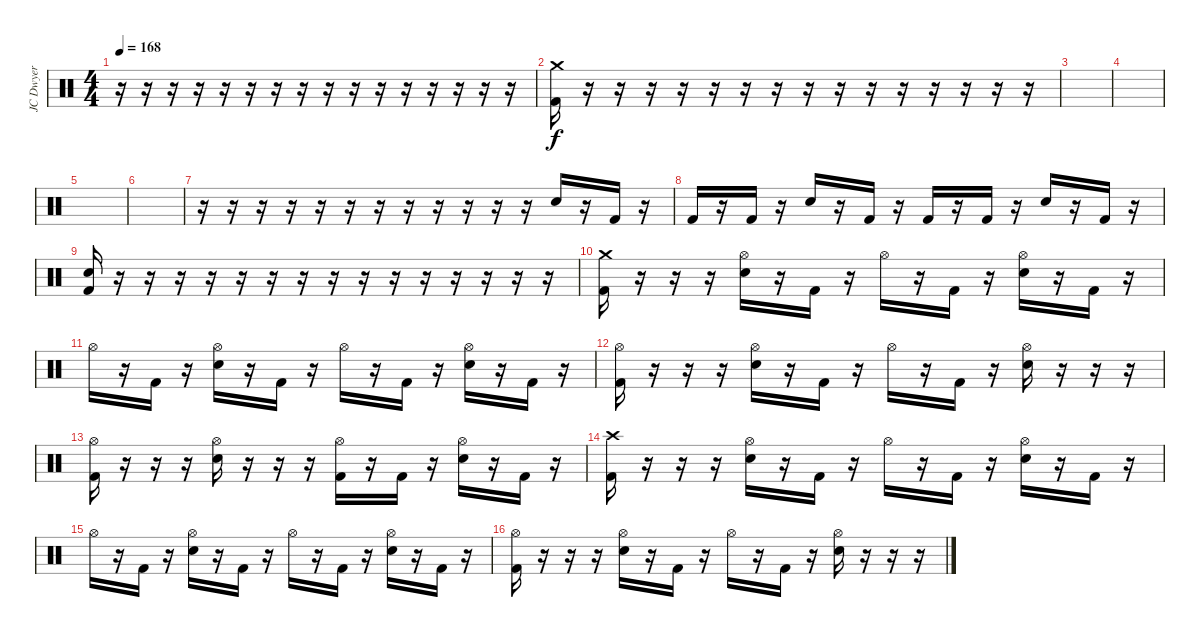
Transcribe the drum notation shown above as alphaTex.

\track ("JC Dwyer" "JC Dwyer") {instrument percussion}
\staff {score}
\articulation defaults
\ts (4 4)
\tempo 168
\clef neutral
\ks c
r.16{dy f} r.16 r.16 r.16 r.16 r.16 r.16 r.16 r.16 r.16 r.16 r.16 r.16 r.16 r.16 r.16 |
("Crash medium (hit)" "Kick (hit) 2").16 r.16 r.16 r.16 r.16 r.16 r.16 r.16 r.16 r.16 r.16 r.16 r.16 r.16 r.16 r.16 |
|
|
|
|
r.16 r.16 r.16 r.16 r.16 r.16 r.16 r.16 r.16 r.16 r.16 r.16 "Electric Snare (hit)".16 r.16 "Kick (hit) 2".16 r.16 |
"Kick (hit) 2".16 r.16 "Kick (hit) 2".16 r.16 "Electric Snare (hit)".16 r.16 "Kick (hit) 2".16 r.16 "Kick (hit) 2".16 r.16 "Kick (hit) 2".16 r.16 "Electric Snare (hit)".16 r.16 "Kick (hit) 2".16 r.16 |
("Electric Snare (hit)" "Kick (hit) 2").16 r.16 r.16 r.16 r.16 r.16 r.16 r.16 r.16 r.16 r.16 r.16 r.16 r.16 r.16 r.16 |
("Crash medium (hit)" "Kick (hit) 2").16 r.16 r.16 r.16 ("Hi-Hat (open)" "Electric Snare (hit)").16 r.16 "Kick (hit) 2".16 r.16 "Hi-Hat (open)".16 r.16 "Kick (hit) 2".16 r.16 ("Hi-Hat (open)" "Electric Snare (hit)").16 r.16 "Kick (hit) 2".16 r.16 |
"Hi-Hat (open)".16 r.16 "Kick (hit) 2".16 r.16 ("Hi-Hat (open)" "Electric Snare (hit)").16 r.16 "Kick (hit) 2".16 r.16 "Hi-Hat (open)".16 r.16 "Kick (hit) 2".16 r.16 ("Hi-Hat (open)" "Electric Snare (hit)").16 r.16 "Kick (hit) 2".16 r.16 |
("Hi-Hat (open)" "Kick (hit) 2").16 r.16 r.16 r.16 ("Hi-Hat (open)" "Electric Snare (hit)").16 r.16 "Kick (hit) 2".16 r.16 "Hi-Hat (open)".16 r.16 "Kick (hit) 2".16 r.16 ("Hi-Hat (open)" "Electric Snare (hit)").16 r.16 r.16 r.16 |
("Hi-Hat (open)" "Kick (hit) 2").16 r.16 r.16 r.16 ("Hi-Hat (open)" "Electric Snare (hit)").16 r.16 r.16 r.16 ("Hi-Hat (open)" "Kick (hit) 2").16 r.16 "Kick (hit) 2".16 r.16 ("Hi-Hat (open)" "Electric Snare (hit)").16 r.16 "Kick (hit) 2".16 r.16 |
("Crash high (hit)" "Kick (hit) 2").16 r.16 r.16 r.16 ("Hi-Hat (open)" "Electric Snare (hit)").16 r.16 "Kick (hit) 2".16 r.16 "Hi-Hat (open)".16 r.16 "Kick (hit) 2".16 r.16 ("Hi-Hat (open)" "Electric Snare (hit)").16 r.16 "Kick (hit) 2".16 r.16 |
"Hi-Hat (open)".16 r.16 "Kick (hit) 2".16 r.16 ("Hi-Hat (open)" "Electric Snare (hit)").16 r.16 "Kick (hit) 2".16 r.16 "Hi-Hat (open)".16 r.16 "Kick (hit) 2".16 r.16 ("Hi-Hat (open)" "Electric Snare (hit)").16 r.16 "Kick (hit) 2".16 r.16 |
("Hi-Hat (open)" "Kick (hit) 2").16 r.16 r.16 r.16 ("Hi-Hat (open)" "Electric Snare (hit)").16 r.16 "Kick (hit) 2".16 r.16 "Hi-Hat (open)".16 r.16 "Kick (hit) 2".16 r.16 ("Hi-Hat (open)" "Electric Snare (hit)").16 r.16 r.16 r.16
